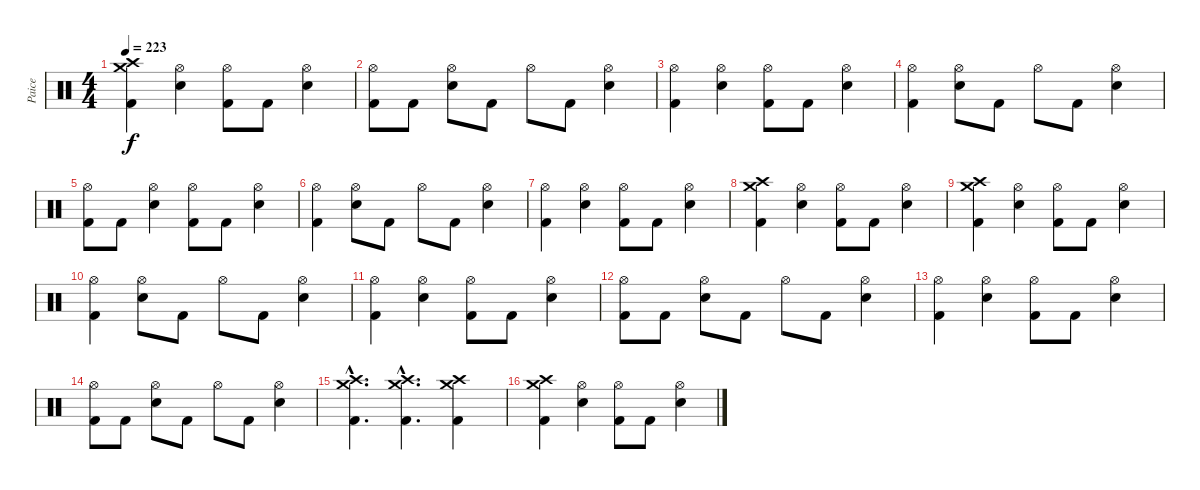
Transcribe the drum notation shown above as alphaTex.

\track ("Paice" "Paice") {instrument percussion}
\staff {score}
\articulation defaults
\ts (4 4)
\tempo 223
\clef neutral
\ks c
("Crash high (hit)" "Crash medium (hit)" "Kick (hit) 2").4{dy f} ("Hi-Hat (open)" "Electric Snare (hit)").4 ("Hi-Hat (open)" "Kick (hit) 2").8 "Kick (hit) 2".8 ("Hi-Hat (open)" "Electric Snare (hit)").4 |
("Hi-Hat (open)" "Kick (hit) 2").8 "Kick (hit) 2".8 ("Hi-Hat (open)" "Electric Snare (hit)").8 "Kick (hit) 2".8 "Hi-Hat (open)".8 "Kick (hit) 2".8 ("Hi-Hat (open)" "Electric Snare (hit)").4 |
("Hi-Hat (open)" "Kick (hit) 2").4 ("Hi-Hat (open)" "Electric Snare (hit)").4 ("Hi-Hat (open)" "Kick (hit) 2").8 "Kick (hit) 2".8 ("Hi-Hat (open)" "Electric Snare (hit)").4 |
("Hi-Hat (open)" "Kick (hit) 2").4 ("Hi-Hat (open)" "Electric Snare (hit)").8 "Kick (hit) 2".8 "Hi-Hat (open)".8 "Kick (hit) 2".8 ("Hi-Hat (open)" "Electric Snare (hit)").4 |
("Hi-Hat (open)" "Kick (hit) 2").8 "Kick (hit) 2".8 ("Hi-Hat (open)" "Electric Snare (hit)").4 ("Hi-Hat (open)" "Kick (hit) 2").8 "Kick (hit) 2".8 ("Hi-Hat (open)" "Electric Snare (hit)").4 |
("Hi-Hat (open)" "Kick (hit) 2").4 ("Hi-Hat (open)" "Electric Snare (hit)").8 "Kick (hit) 2".8 "Hi-Hat (open)".8 "Kick (hit) 2".8 ("Hi-Hat (open)" "Electric Snare (hit)").4 |
("Hi-Hat (open)" "Kick (hit) 2").4 ("Hi-Hat (open)" "Electric Snare (hit)").4 ("Hi-Hat (open)" "Kick (hit) 2").8 "Kick (hit) 2".8 ("Hi-Hat (open)" "Electric Snare (hit)").4 |
("Crash high (hit)" "Crash medium (hit)" "Kick (hit) 2").4 ("Hi-Hat (open)" "Electric Snare (hit)").4 ("Hi-Hat (open)" "Kick (hit) 2").8 "Kick (hit) 2".8 ("Hi-Hat (open)" "Electric Snare (hit)").4 |
("Crash high (hit)" "Crash medium (hit)" "Kick (hit) 2").4 ("Hi-Hat (open)" "Electric Snare (hit)").4 ("Hi-Hat (open)" "Kick (hit) 2").8 "Kick (hit) 2".8 ("Hi-Hat (open)" "Electric Snare (hit)").4 |
("Hi-Hat (open)" "Kick (hit) 2").4 ("Hi-Hat (open)" "Electric Snare (hit)").8 "Kick (hit) 2".8 "Hi-Hat (open)".8 "Kick (hit) 2".8 ("Hi-Hat (open)" "Electric Snare (hit)").4 |
("Hi-Hat (open)" "Kick (hit) 2").4 ("Hi-Hat (open)" "Electric Snare (hit)").4 ("Hi-Hat (open)" "Kick (hit) 2").8 "Kick (hit) 2".8 ("Hi-Hat (open)" "Electric Snare (hit)").4 |
("Hi-Hat (open)" "Kick (hit) 2").8 "Kick (hit) 2".8 ("Hi-Hat (open)" "Electric Snare (hit)").8 "Kick (hit) 2".8 "Hi-Hat (open)".8 "Kick (hit) 2".8 ("Hi-Hat (open)" "Electric Snare (hit)").4 |
("Hi-Hat (open)" "Kick (hit) 2").4 ("Hi-Hat (open)" "Electric Snare (hit)").4 ("Hi-Hat (open)" "Kick (hit) 2").8 "Kick (hit) 2".8 ("Hi-Hat (open)" "Electric Snare (hit)").4 |
("Hi-Hat (open)" "Kick (hit) 2").8 "Kick (hit) 2".8 ("Hi-Hat (open)" "Electric Snare (hit)").8 "Kick (hit) 2".8 "Hi-Hat (open)".8 "Kick (hit) 2".8 ("Hi-Hat (open)" "Electric Snare (hit)").4 |
("Crash high (hit)"{hac} "Crash medium (hit)"{hac} "Kick (hit) 2"{hac}).4{d} ("Crash high (hit)"{hac} "Crash medium (hit)"{hac} "Kick (hit) 2"{hac}).4{d} ("Crash high (hit)" "Crash medium (hit)" "Kick (hit) 2").4 |
("Crash high (hit)" "Crash medium (hit)" "Kick (hit) 2").4 ("Hi-Hat (open)" "Electric Snare (hit)").4 ("Hi-Hat (open)" "Kick (hit) 2").8 "Kick (hit) 2".8 ("Hi-Hat (open)" "Electric Snare (hit)").4
